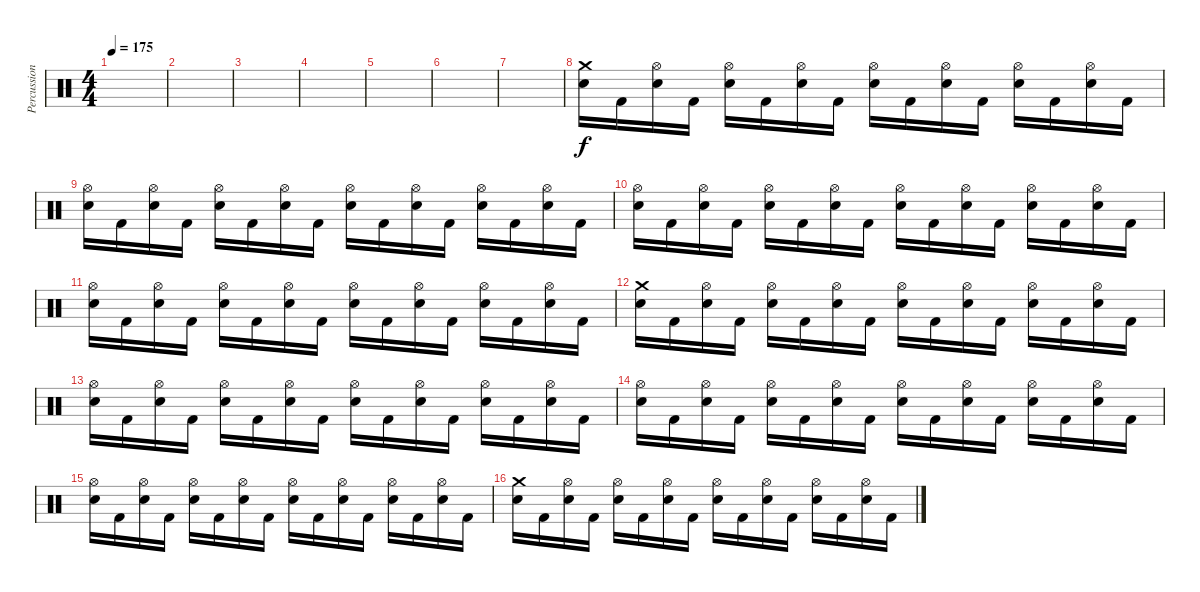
\track ("Percussion" "Percussion") {instrument percussion}
\staff {score}
\articulation defaults
\ts (4 4)
\tempo 175
\clef neutral
\ks c
|
|
|
|
|
|
|
("Crash medium (hit)" "Snare (hit) 2").16 "Kick (hit) 2".16 ("Hi-Hat (open)" "Snare (hit) 2").16 "Kick (hit) 2".16 ("Hi-Hat (open)" "Snare (hit) 2").16 "Kick (hit) 2".16 ("Hi-Hat (open)" "Snare (hit) 2").16 "Kick (hit) 2".16 ("Hi-Hat (open)" "Snare (hit) 2").16 "Kick (hit) 2".16 ("Hi-Hat (open)" "Snare (hit) 2").16 "Kick (hit) 2".16 ("Hi-Hat (open)" "Snare (hit) 2").16 "Kick (hit) 2".16 ("Hi-Hat (open)" "Snare (hit) 2").16 "Kick (hit) 2".16 |
("Hi-Hat (open)" "Snare (hit) 2").16 "Kick (hit) 2".16 ("Hi-Hat (open)" "Snare (hit) 2").16 "Kick (hit) 2".16 ("Hi-Hat (open)" "Snare (hit) 2").16 "Kick (hit) 2".16 ("Hi-Hat (open)" "Snare (hit) 2").16 "Kick (hit) 2".16 ("Hi-Hat (open)" "Snare (hit) 2").16 "Kick (hit) 2".16 ("Hi-Hat (open)" "Snare (hit) 2").16 "Kick (hit) 2".16 ("Hi-Hat (open)" "Snare (hit) 2").16 "Kick (hit) 2".16 ("Hi-Hat (open)" "Snare (hit) 2").16 "Kick (hit) 2".16 |
("Hi-Hat (open)" "Snare (hit) 2").16 "Kick (hit) 2".16 ("Hi-Hat (open)" "Snare (hit) 2").16 "Kick (hit) 2".16 ("Hi-Hat (open)" "Snare (hit) 2").16 "Kick (hit) 2".16 ("Hi-Hat (open)" "Snare (hit) 2").16 "Kick (hit) 2".16 ("Hi-Hat (open)" "Snare (hit) 2").16 "Kick (hit) 2".16 ("Hi-Hat (open)" "Snare (hit) 2").16 "Kick (hit) 2".16 ("Hi-Hat (open)" "Snare (hit) 2").16 "Kick (hit) 2".16 ("Hi-Hat (open)" "Snare (hit) 2").16 "Kick (hit) 2".16 |
("Hi-Hat (open)" "Snare (hit) 2").16 "Kick (hit) 2".16 ("Hi-Hat (open)" "Snare (hit) 2").16 "Kick (hit) 2".16 ("Hi-Hat (open)" "Snare (hit) 2").16 "Kick (hit) 2".16 ("Hi-Hat (open)" "Snare (hit) 2").16 "Kick (hit) 2".16 ("Hi-Hat (open)" "Snare (hit) 2").16 "Kick (hit) 2".16 ("Hi-Hat (open)" "Snare (hit) 2").16 "Kick (hit) 2".16 ("Hi-Hat (open)" "Snare (hit) 2").16 "Kick (hit) 2".16 ("Hi-Hat (open)" "Snare (hit) 2").16 "Kick (hit) 2".16 |
("Crash medium (hit)" "Snare (hit) 2").16 "Kick (hit) 2".16 ("Hi-Hat (open)" "Snare (hit) 2").16 "Kick (hit) 2".16 ("Hi-Hat (open)" "Snare (hit) 2").16 "Kick (hit) 2".16 ("Hi-Hat (open)" "Snare (hit) 2").16 "Kick (hit) 2".16 ("Hi-Hat (open)" "Snare (hit) 2").16 "Kick (hit) 2".16 ("Hi-Hat (open)" "Snare (hit) 2").16 "Kick (hit) 2".16 ("Hi-Hat (open)" "Snare (hit) 2").16 "Kick (hit) 2".16 ("Hi-Hat (open)" "Snare (hit) 2").16 "Kick (hit) 2".16 |
("Hi-Hat (open)" "Snare (hit) 2").16 "Kick (hit) 2".16 ("Hi-Hat (open)" "Snare (hit) 2").16 "Kick (hit) 2".16 ("Hi-Hat (open)" "Snare (hit) 2").16 "Kick (hit) 2".16 ("Hi-Hat (open)" "Snare (hit) 2").16 "Kick (hit) 2".16 ("Hi-Hat (open)" "Snare (hit) 2").16 "Kick (hit) 2".16 ("Hi-Hat (open)" "Snare (hit) 2").16 "Kick (hit) 2".16 ("Hi-Hat (open)" "Snare (hit) 2").16 "Kick (hit) 2".16 ("Hi-Hat (open)" "Snare (hit) 2").16 "Kick (hit) 2".16 |
("Hi-Hat (open)" "Snare (hit) 2").16 "Kick (hit) 2".16 ("Hi-Hat (open)" "Snare (hit) 2").16 "Kick (hit) 2".16 ("Hi-Hat (open)" "Snare (hit) 2").16 "Kick (hit) 2".16 ("Hi-Hat (open)" "Snare (hit) 2").16 "Kick (hit) 2".16 ("Hi-Hat (open)" "Snare (hit) 2").16 "Kick (hit) 2".16 ("Hi-Hat (open)" "Snare (hit) 2").16 "Kick (hit) 2".16 ("Hi-Hat (open)" "Snare (hit) 2").16 "Kick (hit) 2".16 ("Hi-Hat (open)" "Snare (hit) 2").16 "Kick (hit) 2".16 |
("Hi-Hat (open)" "Snare (hit) 2").16 "Kick (hit) 2".16 ("Hi-Hat (open)" "Snare (hit) 2").16 "Kick (hit) 2".16 ("Hi-Hat (open)" "Snare (hit) 2").16 "Kick (hit) 2".16 ("Hi-Hat (open)" "Snare (hit) 2").16 "Kick (hit) 2".16 ("Hi-Hat (open)" "Snare (hit) 2").16 "Kick (hit) 2".16 ("Hi-Hat (open)" "Snare (hit) 2").16 "Kick (hit) 2".16 ("Hi-Hat (open)" "Snare (hit) 2").16 "Kick (hit) 2".16 ("Hi-Hat (open)" "Snare (hit) 2").16 "Kick (hit) 2".16 |
("Crash medium (hit)" "Snare (hit) 2").16 "Kick (hit) 2".16 ("Hi-Hat (open)" "Snare (hit) 2").16 "Kick (hit) 2".16 ("Hi-Hat (open)" "Snare (hit) 2").16 "Kick (hit) 2".16 ("Hi-Hat (open)" "Snare (hit) 2").16 "Kick (hit) 2".16 ("Hi-Hat (open)" "Snare (hit) 2").16 "Kick (hit) 2".16 ("Hi-Hat (open)" "Snare (hit) 2").16 "Kick (hit) 2".16 ("Hi-Hat (open)" "Snare (hit) 2").16 "Kick (hit) 2".16 ("Hi-Hat (open)" "Snare (hit) 2").16 "Kick (hit) 2".16
